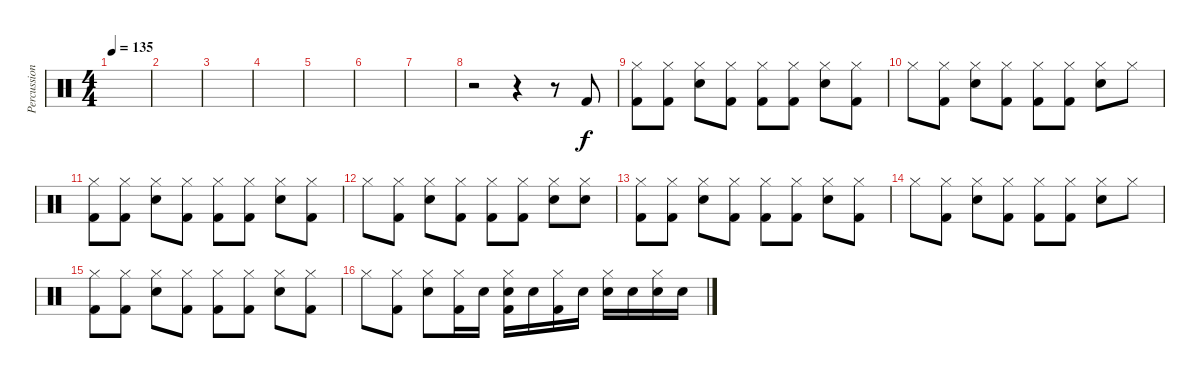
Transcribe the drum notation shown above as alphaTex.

\track ("Percussions" "Percussion") {instrument percussion}
\staff {score}
\articulation defaults
\ts (4 4)
\tempo 135
\clef neutral
\ks c
|
|
|
|
|
|
|
r.2 r.4 r.8 "Kick (hit) 2".8 |
("Hi-Hat (closed)" "Kick (hit) 2").8 ("Hi-Hat (closed)" "Kick (hit) 2").8 ("Hi-Hat (closed)" "Electric Snare (hit)").8 ("Hi-Hat (closed)" "Kick (hit) 2").8 ("Hi-Hat (closed)" "Kick (hit) 2").8 ("Hi-Hat (closed)" "Kick (hit) 2").8 ("Hi-Hat (closed)" "Electric Snare (hit)").8 ("Hi-Hat (closed)" "Kick (hit) 2").8 |
"Hi-Hat (closed)".8 ("Hi-Hat (closed)" "Kick (hit) 2").8 ("Hi-Hat (closed)" "Electric Snare (hit)").8 ("Hi-Hat (closed)" "Kick (hit) 2").8 ("Hi-Hat (closed)" "Kick (hit) 2").8 ("Hi-Hat (closed)" "Kick (hit) 2").8 ("Hi-Hat (closed)" "Electric Snare (hit)").8 "Hi-Hat (closed)".8 |
("Hi-Hat (closed)" "Kick (hit) 2").8 ("Hi-Hat (closed)" "Kick (hit) 2").8 ("Hi-Hat (closed)" "Electric Snare (hit)").8 ("Hi-Hat (closed)" "Kick (hit) 2").8 ("Hi-Hat (closed)" "Kick (hit) 2").8 ("Hi-Hat (closed)" "Kick (hit) 2").8 ("Hi-Hat (closed)" "Electric Snare (hit)").8 ("Hi-Hat (closed)" "Kick (hit) 2").8 |
"Hi-Hat (closed)".8 ("Hi-Hat (closed)" "Kick (hit) 2").8 ("Hi-Hat (closed)" "Electric Snare (hit)").8 ("Hi-Hat (closed)" "Kick (hit) 2").8 ("Hi-Hat (closed)" "Kick (hit) 2").8 ("Hi-Hat (closed)" "Kick (hit) 2").8 ("Hi-Hat (closed)" "Electric Snare (hit)").8 ("Hi-Hat (closed)" "Electric Snare (hit)").8 |
("Hi-Hat (closed)" "Kick (hit) 2").8 ("Hi-Hat (closed)" "Kick (hit) 2").8 ("Hi-Hat (closed)" "Electric Snare (hit)").8 ("Hi-Hat (closed)" "Kick (hit) 2").8 ("Hi-Hat (closed)" "Kick (hit) 2").8 ("Hi-Hat (closed)" "Kick (hit) 2").8 ("Hi-Hat (closed)" "Electric Snare (hit)").8 ("Hi-Hat (closed)" "Kick (hit) 2").8 |
"Hi-Hat (closed)".8 ("Hi-Hat (closed)" "Kick (hit) 2").8 ("Hi-Hat (closed)" "Electric Snare (hit)").8 ("Hi-Hat (closed)" "Kick (hit) 2").8 ("Hi-Hat (closed)" "Kick (hit) 2").8 ("Hi-Hat (closed)" "Kick (hit) 2").8 ("Hi-Hat (closed)" "Electric Snare (hit)").8 "Hi-Hat (closed)".8 |
("Hi-Hat (closed)" "Kick (hit) 2").8 ("Hi-Hat (closed)" "Kick (hit) 2").8 ("Hi-Hat (closed)" "Electric Snare (hit)").8 ("Hi-Hat (closed)" "Kick (hit) 2").8 ("Hi-Hat (closed)" "Kick (hit) 2").8 ("Hi-Hat (closed)" "Kick (hit) 2").8 ("Hi-Hat (closed)" "Electric Snare (hit)").8 ("Hi-Hat (closed)" "Kick (hit) 2").8 |
"Hi-Hat (closed)".8 ("Hi-Hat (closed)" "Kick (hit) 2").8 ("Hi-Hat (closed)" "Electric Snare (hit)").8 ("Hi-Hat (closed)" "Kick (hit) 2").16 "Electric Snare (hit)".16 ("Hi-Hat (closed)" "Electric Snare (hit)" "Kick (hit) 2").16 "Electric Snare (hit)".16 ("Hi-Hat (closed)" "Kick (hit) 2").16 "Electric Snare (hit)".16 ("Hi-Hat (closed)" "Electric Snare (hit)").16 "Electric Snare (hit)".16 ("Hi-Hat (closed)" "Electric Snare (hit)").16 "Electric Snare (hit)".16
